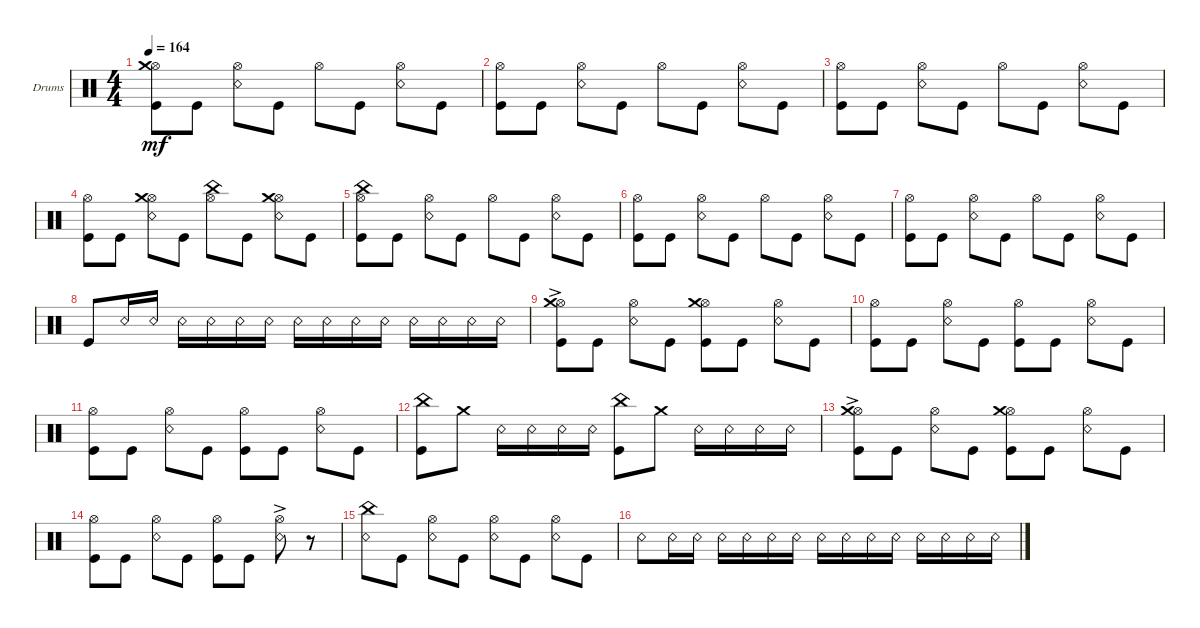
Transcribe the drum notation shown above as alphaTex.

\defaultSystemsLayout 4
\bracketExtendMode groupsimilarinstruments
\firstSystemTrackNameOrientation horizontal
\otherSystemsTrackNameOrientation horizontal
\track ("Drums" "Drums") {instrument percussion}
\staff {score}
\articulation defaults
\ts (4 4)
\tempo 164
\clef neutral
\scale
0.333333
\ks c
("Hi-Hat (open)" "Kick (hit)" "Crash medium (hit)").8{dy mf} "Kick (hit)".8 ("Snare (rim shot)" "Hi-Hat (open)").8 "Kick (hit)".8 "Hi-Hat (open)".8 "Kick (hit)".8 ("Snare (rim shot)" "Hi-Hat (open)").8 "Kick (hit)".8 |
\scale
0.333333 ("Hi-Hat (open)" "Kick (hit)").8 "Kick (hit)".8 ("Snare (rim shot)" "Hi-Hat (open)").8 "Kick (hit)".8 "Hi-Hat (open)".8 "Kick (hit)".8 ("Snare (rim shot)" "Hi-Hat (open)").8 "Kick (hit)".8 |
\scale
0.333333 ("Hi-Hat (open)" "Kick (hit)").8 "Kick (hit)".8 ("Snare (rim shot)" "Hi-Hat (open)").8 "Kick (hit)".8 "Hi-Hat (open)".8 "Kick (hit)".8 ("Snare (rim shot)" "Hi-Hat (open)").8 "Kick (hit)".8 |
\scale
0.333333 ("Hi-Hat (open)" "Kick (hit)").8 "Kick (hit)".8 ("Snare (rim shot)" "Hi-Hat (open)" "Crash medium (hit)").8 "Kick (hit)".8 ("Hi-Hat (open)" "China (hit)").8 "Kick (hit)".8 ("Snare (rim shot)" "Hi-Hat (open)" "Crash medium (hit)").8 "Kick (hit)".8 |
\scale
0.333333 ("Hi-Hat (open)" "Kick (hit)" "China (hit)").8 "Kick (hit)".8 ("Snare (rim shot)" "Hi-Hat (open)").8 "Kick (hit)".8 "Hi-Hat (open)".8 "Kick (hit)".8 ("Snare (rim shot)" "Hi-Hat (open)").8 "Kick (hit)".8 |
\scale
0.333333 ("Hi-Hat (open)" "Kick (hit)").8 "Kick (hit)".8 ("Snare (rim shot)" "Hi-Hat (open)").8 "Kick (hit)".8 "Hi-Hat (open)".8 "Kick (hit)".8 ("Snare (rim shot)" "Hi-Hat (open)").8 "Kick (hit)".8 |
\scale
0.333333 ("Hi-Hat (open)" "Kick (hit)").8 "Kick (hit)".8 ("Snare (rim shot)" "Hi-Hat (open)").8 "Kick (hit)".8 "Hi-Hat (open)".8 "Kick (hit)".8 ("Snare (rim shot)" "Hi-Hat (open)").8 "Kick (hit)".8 |
\scale
0.333333 "Kick (hit)".8 "Snare (rim shot)".16 "Snare (rim shot)".16 "Snare (rim shot)".16 "Snare (rim shot)".16 "Snare (rim shot)".16 "Snare (rim shot)".16 "Snare (rim shot)".16 "Snare (rim shot)".16 "Snare (rim shot)".16 "Snare (rim shot)".16 "Snare (rim shot)".16 "Snare (rim shot)".16 "Snare (rim shot)".16 "Snare (rim shot)".16 |
\scale
0.333333 ("Hi-Hat (open)" "Kick (hit)" "Crash medium (hit)"{ac}).8 "Kick (hit)".8 ("Snare (rim shot)" "Hi-Hat (open)").8 "Kick (hit)".8 ("Kick (hit)" "Hi-Hat (open)" "Crash medium (hit)").8 "Kick (hit)".8 ("Snare (rim shot)" "Hi-Hat (open)").8 "Kick (hit)".8 |
\scale
0.333333 ("Hi-Hat (open)" "Kick (hit)").8 "Kick (hit)".8 ("Snare (rim shot)" "Hi-Hat (open)").8 "Kick (hit)".8 ("Kick (hit)" "Hi-Hat (open)").8 "Kick (hit)".8 ("Snare (rim shot)" "Hi-Hat (open)").8 "Kick (hit)".8 |
\scale
0.333333 ("Hi-Hat (open)" "Kick (hit)").8 "Kick (hit)".8 ("Snare (rim shot)" "Hi-Hat (open)").8 "Kick (hit)".8 ("Kick (hit)" "Hi-Hat (open)").8 "Kick (hit)".8 ("Snare (rim shot)" "Hi-Hat (open)").8 "Kick (hit)".8 |
\scale
0.333333 ("Kick (hit)" "China (hit)").8 "Crash medium (hit)".8 "Snare (rim shot)".16 "Snare (rim shot)".16 "Snare (rim shot)".16 "Snare (rim shot)".16 ("Kick (hit)" "China (hit)").8 "Crash medium (hit)".8 "Snare (rim shot)".16 "Snare (rim shot)".16 "Snare (rim shot)".16 "Snare (rim shot)".16 |
\scale
0.333333 ("Hi-Hat (open)" "Kick (hit)" "Crash medium (hit)"{ac}).8 "Kick (hit)".8 ("Snare (rim shot)" "Hi-Hat (open)").8 "Kick (hit)".8 ("Kick (hit)" "Hi-Hat (open)" "Crash medium (hit)").8 "Kick (hit)".8 ("Snare (rim shot)" "Hi-Hat (open)").8 "Kick (hit)".8 |
\scale
0.333333 ("Hi-Hat (open)" "Kick (hit)").8 "Kick (hit)".8 ("Snare (rim shot)" "Hi-Hat (open)").8 "Kick (hit)".8 ("Kick (hit)" "Hi-Hat (open)").8 "Kick (hit)".8 ("Snare (rim shot)"{ac} "Hi-Hat (open)").8 r.8 |
\scale
0.333333 ("Snare (rim shot)" "China (hit)").8 "Kick (hit)".8 ("Snare (rim shot)" "Hi-Hat (open)").8 "Kick (hit)".8 ("Snare (rim shot)" "Hi-Hat (open)").8 "Kick (hit)".8 ("Snare (rim shot)" "Hi-Hat (open)").8 "Kick (hit)".8 |
\scale
0.333333 "Snare (rim shot)".8 "Snare (rim shot)".16 "Snare (rim shot)".16 "Snare (rim shot)".16 "Snare (rim shot)".16 "Snare (rim shot)".16 "Snare (rim shot)".16 "Snare (rim shot)".16 "Snare (rim shot)".16 "Snare (rim shot)".16 "Snare (rim shot)".16 "Snare (rim shot)".16 "Snare (rim shot)".16 "Snare (rim shot)".16 "Snare (rim shot)".16
